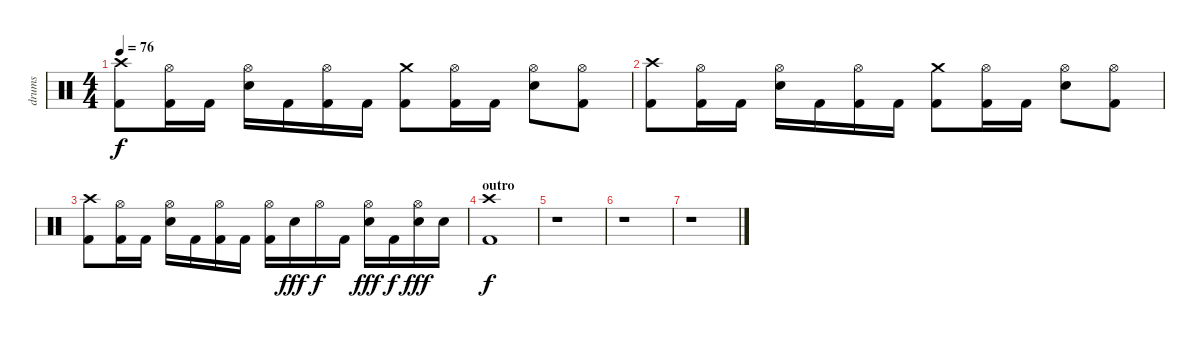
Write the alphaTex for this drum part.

\track ("drums" "drums") {instrument percussion}
\staff {score}
\articulation defaults
\ts (4 4)
\tempo 76
\clef neutral
\ks c
("Crash high (hit)" "Kick (hit) 2").8{dy f} ("Hi-Hat (open)" "Kick (hit) 2").16 "Kick (hit) 2".16 ("Hi-Hat (open)" "Electric Snare (hit)").16 "Kick (hit) 2".16 ("Hi-Hat (open)" "Kick (hit) 2").16 "Kick (hit) 2".16 ("Crash medium (hit)" "Kick (hit) 2").8 ("Hi-Hat (open)" "Kick (hit) 2").16 "Kick (hit) 2".16 ("Hi-Hat (open)" "Electric Snare (hit)").8 ("Hi-Hat (open)" "Kick (hit) 2").8 |
("Crash high (hit)" "Kick (hit) 2").8 ("Hi-Hat (open)" "Kick (hit) 2").16 "Kick (hit) 2".16 ("Hi-Hat (open)" "Electric Snare (hit)").16 "Kick (hit) 2".16 ("Hi-Hat (open)" "Kick (hit) 2").16 "Kick (hit) 2".16 ("Crash medium (hit)" "Kick (hit) 2").8 ("Hi-Hat (open)" "Kick (hit) 2").16 "Kick (hit) 2".16 ("Hi-Hat (open)" "Electric Snare (hit)").8 ("Hi-Hat (open)" "Kick (hit) 2").8 |
("Crash high (hit)" "Kick (hit) 2").8 ("Hi-Hat (open)" "Kick (hit) 2").16 "Kick (hit) 2".16 ("Hi-Hat (open)" "Electric Snare (hit)").16 "Kick (hit) 2".16 ("Hi-Hat (open)" "Kick (hit) 2").16 "Kick (hit) 2".16 ("Hi-Hat (open)" "Kick (hit) 2").16 "Electric Snare (hit)".16{dy fff} "Hi-Hat (open)".16{dy f} "Kick (hit) 2".16 ("Hi-Hat (open)" "Electric Snare (hit)").16{dy fff} "Kick (hit) 2".16{dy f} ("Hi-Hat (open)" "Electric Snare (hit)").16{dy fff} "Electric Snare (hit)".16 |
\section ("" "outro")
("Crash high (hit)" "Kick (hit) 2").1{dy f} |
r.1 |
r.1 |
r.1
